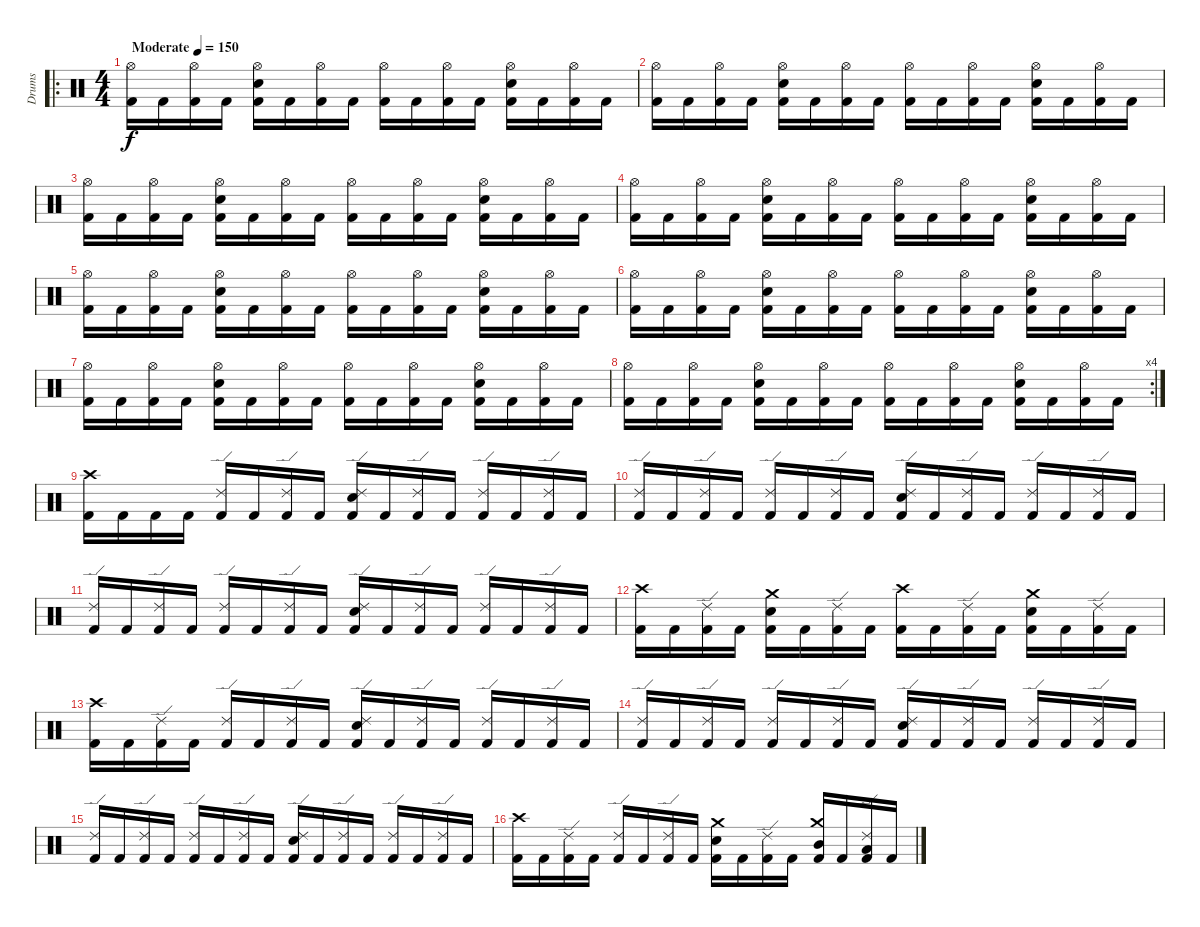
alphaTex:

\track ("Drums" "Drums") {instrument percussion}
\staff {score}
\articulation defaults
\ro
\ts (4 4)
\tempo (150 "Moderate")
\clef neutral
\ks c
("Hi-Hat (open)" "Kick (hit) 2").16{dy f} "Kick (hit) 2".16 ("Hi-Hat (open)" "Kick (hit) 2").16 "Kick (hit) 2".16 ("Hi-Hat (open)" "Electric Snare (hit)" "Kick (hit) 2").16 "Kick (hit) 2".16 ("Hi-Hat (open)" "Kick (hit) 2").16 "Kick (hit) 2".16 ("Hi-Hat (open)" "Kick (hit) 2").16 "Kick (hit) 2".16 ("Hi-Hat (open)" "Kick (hit) 2").16 "Kick (hit) 2".16 ("Hi-Hat (open)" "Electric Snare (hit)" "Kick (hit) 2").16 "Kick (hit) 2".16 ("Hi-Hat (open)" "Kick (hit) 2").16 "Kick (hit) 2".16 |
("Hi-Hat (open)" "Kick (hit) 2").16 "Kick (hit) 2".16 ("Hi-Hat (open)" "Kick (hit) 2").16 "Kick (hit) 2".16 ("Hi-Hat (open)" "Electric Snare (hit)" "Kick (hit) 2").16 "Kick (hit) 2".16 ("Hi-Hat (open)" "Kick (hit) 2").16 "Kick (hit) 2".16 ("Hi-Hat (open)" "Kick (hit) 2").16 "Kick (hit) 2".16 ("Hi-Hat (open)" "Kick (hit) 2").16 "Kick (hit) 2".16 ("Hi-Hat (open)" "Electric Snare (hit)" "Kick (hit) 2").16 "Kick (hit) 2".16 ("Hi-Hat (open)" "Kick (hit) 2").16 "Kick (hit) 2".16 |
("Hi-Hat (open)" "Kick (hit) 2").16 "Kick (hit) 2".16 ("Hi-Hat (open)" "Kick (hit) 2").16 "Kick (hit) 2".16 ("Hi-Hat (open)" "Electric Snare (hit)" "Kick (hit) 2").16 "Kick (hit) 2".16 ("Hi-Hat (open)" "Kick (hit) 2").16 "Kick (hit) 2".16 ("Hi-Hat (open)" "Kick (hit) 2").16 "Kick (hit) 2".16 ("Hi-Hat (open)" "Kick (hit) 2").16 "Kick (hit) 2".16 ("Hi-Hat (open)" "Electric Snare (hit)" "Kick (hit) 2").16 "Kick (hit) 2".16 ("Hi-Hat (open)" "Kick (hit) 2").16 "Kick (hit) 2".16 |
("Hi-Hat (open)" "Kick (hit) 2").16 "Kick (hit) 2".16 ("Hi-Hat (open)" "Kick (hit) 2").16 "Kick (hit) 2".16 ("Hi-Hat (open)" "Electric Snare (hit)" "Kick (hit) 2").16 "Kick (hit) 2".16 ("Hi-Hat (open)" "Kick (hit) 2").16 "Kick (hit) 2".16 ("Hi-Hat (open)" "Kick (hit) 2").16 "Kick (hit) 2".16 ("Hi-Hat (open)" "Kick (hit) 2").16 "Kick (hit) 2".16 ("Hi-Hat (open)" "Electric Snare (hit)" "Kick (hit) 2").16 "Kick (hit) 2".16 ("Hi-Hat (open)" "Kick (hit) 2").16 "Kick (hit) 2".16 |
("Hi-Hat (open)" "Kick (hit) 2").16 "Kick (hit) 2".16 ("Hi-Hat (open)" "Kick (hit) 2").16 "Kick (hit) 2".16 ("Hi-Hat (open)" "Electric Snare (hit)" "Kick (hit) 2").16 "Kick (hit) 2".16 ("Hi-Hat (open)" "Kick (hit) 2").16 "Kick (hit) 2".16 ("Hi-Hat (open)" "Kick (hit) 2").16 "Kick (hit) 2".16 ("Hi-Hat (open)" "Kick (hit) 2").16 "Kick (hit) 2".16 ("Hi-Hat (open)" "Electric Snare (hit)" "Kick (hit) 2").16 "Kick (hit) 2".16 ("Hi-Hat (open)" "Kick (hit) 2").16 "Kick (hit) 2".16 |
("Hi-Hat (open)" "Kick (hit) 2").16 "Kick (hit) 2".16 ("Hi-Hat (open)" "Kick (hit) 2").16 "Kick (hit) 2".16 ("Hi-Hat (open)" "Electric Snare (hit)" "Kick (hit) 2").16 "Kick (hit) 2".16 ("Hi-Hat (open)" "Kick (hit) 2").16 "Kick (hit) 2".16 ("Hi-Hat (open)" "Kick (hit) 2").16 "Kick (hit) 2".16 ("Hi-Hat (open)" "Kick (hit) 2").16 "Kick (hit) 2".16 ("Hi-Hat (open)" "Electric Snare (hit)" "Kick (hit) 2").16 "Kick (hit) 2".16 ("Hi-Hat (open)" "Kick (hit) 2").16 "Kick (hit) 2".16 |
("Hi-Hat (open)" "Kick (hit) 2").16 "Kick (hit) 2".16 ("Hi-Hat (open)" "Kick (hit) 2").16 "Kick (hit) 2".16 ("Hi-Hat (open)" "Electric Snare (hit)" "Kick (hit) 2").16 "Kick (hit) 2".16 ("Hi-Hat (open)" "Kick (hit) 2").16 "Kick (hit) 2".16 ("Hi-Hat (open)" "Kick (hit) 2").16 "Kick (hit) 2".16 ("Hi-Hat (open)" "Kick (hit) 2").16 "Kick (hit) 2".16 ("Hi-Hat (open)" "Electric Snare (hit)" "Kick (hit) 2").16 "Kick (hit) 2".16 ("Hi-Hat (open)" "Kick (hit) 2").16 "Kick (hit) 2".16 |
\rc 4
("Hi-Hat (open)" "Kick (hit) 2").16 "Kick (hit) 2".16 ("Hi-Hat (open)" "Kick (hit) 2").16 "Kick (hit) 2".16 ("Hi-Hat (open)" "Electric Snare (hit)" "Kick (hit) 2").16 "Kick (hit) 2".16 ("Hi-Hat (open)" "Kick (hit) 2").16 "Kick (hit) 2".16 ("Hi-Hat (open)" "Kick (hit) 2").16 "Kick (hit) 2".16 ("Hi-Hat (open)" "Kick (hit) 2").16 "Kick (hit) 2".16 ("Hi-Hat (open)" "Electric Snare (hit)" "Kick (hit) 2").16 "Kick (hit) 2".16 ("Hi-Hat (open)" "Kick (hit) 2").16 "Kick (hit) 2".16 |
("Crash high (hit)" "Kick (hit) 2").16 "Kick (hit) 2".16 "Kick (hit) 2".16 "Kick (hit) 2".16 ("Ride (edge) 2" "Kick (hit) 2").16 "Kick (hit) 2".16 ("Ride (edge) 2" "Kick (hit) 2").16 "Kick (hit) 2".16 ("Ride (edge) 2" "Electric Snare (hit)" "Kick (hit) 2").16 "Kick (hit) 2".16 ("Ride (edge) 2" "Kick (hit) 2").16 "Kick (hit) 2".16 ("Ride (edge) 2" "Kick (hit) 2").16 "Kick (hit) 2".16 ("Ride (edge) 2" "Kick (hit) 2").16 "Kick (hit) 2".16 |
("Ride (edge) 2" "Kick (hit) 2").16 "Kick (hit) 2".16 ("Ride (edge) 2" "Kick (hit) 2").16 "Kick (hit) 2".16 ("Ride (edge) 2" "Kick (hit) 2").16 "Kick (hit) 2".16 ("Ride (edge) 2" "Kick (hit) 2").16 "Kick (hit) 2".16 ("Ride (edge) 2" "Electric Snare (hit)" "Kick (hit) 2").16 "Kick (hit) 2".16 ("Ride (edge) 2" "Kick (hit) 2").16 "Kick (hit) 2".16 ("Ride (edge) 2" "Kick (hit) 2").16 "Kick (hit) 2".16 ("Ride (edge) 2" "Kick (hit) 2").16 "Kick (hit) 2".16 |
("Ride (edge) 2" "Kick (hit) 2").16 "Kick (hit) 2".16 ("Ride (edge) 2" "Kick (hit) 2").16 "Kick (hit) 2".16 ("Ride (edge) 2" "Kick (hit) 2").16 "Kick (hit) 2".16 ("Ride (edge) 2" "Kick (hit) 2").16 "Kick (hit) 2".16 ("Ride (edge) 2" "Electric Snare (hit)" "Kick (hit) 2").16 "Kick (hit) 2".16 ("Ride (edge) 2" "Kick (hit) 2").16 "Kick (hit) 2".16 ("Ride (edge) 2" "Kick (hit) 2").16 "Kick (hit) 2".16 ("Ride (edge) 2" "Kick (hit) 2").16 "Kick (hit) 2".16 |
("Crash high (hit)" "Kick (hit) 2").16 "Kick (hit) 2".16 ("Ride (edge) 2" "Kick (hit) 2").16 "Kick (hit) 2".16 ("Crash medium (hit)" "Electric Snare (hit)" "Kick (hit) 2").16 "Kick (hit) 2".16 ("Ride (edge) 2" "Kick (hit) 2").16 "Kick (hit) 2".16 ("Crash high (hit)" "Kick (hit) 2").16 "Kick (hit) 2".16 ("Ride (edge) 2" "Kick (hit) 2").16 "Kick (hit) 2".16 ("Crash medium (hit)" "Electric Snare (hit)" "Kick (hit) 2").16 "Kick (hit) 2".16 ("Ride (edge) 2" "Kick (hit) 2").16 "Kick (hit) 2".16 |
("Crash high (hit)" "Kick (hit) 2").16 "Kick (hit) 2".16 ("Ride (edge) 2" "Kick (hit) 2").16 "Kick (hit) 2".16 ("Ride (edge) 2" "Kick (hit) 2").16 "Kick (hit) 2".16 ("Ride (edge) 2" "Kick (hit) 2").16 "Kick (hit) 2".16 ("Ride (edge) 2" "Electric Snare (hit)" "Kick (hit) 2").16 "Kick (hit) 2".16 ("Ride (edge) 2" "Kick (hit) 2").16 "Kick (hit) 2".16 ("Ride (edge) 2" "Kick (hit) 2").16 "Kick (hit) 2".16 ("Ride (edge) 2" "Kick (hit) 2").16 "Kick (hit) 2".16 |
("Ride (edge) 2" "Kick (hit) 2").16 "Kick (hit) 2".16 ("Ride (edge) 2" "Kick (hit) 2").16 "Kick (hit) 2".16 ("Ride (edge) 2" "Kick (hit) 2").16 "Kick (hit) 2".16 ("Ride (edge) 2" "Kick (hit) 2").16 "Kick (hit) 2".16 ("Ride (edge) 2" "Electric Snare (hit)" "Kick (hit) 2").16 "Kick (hit) 2".16 ("Ride (edge) 2" "Kick (hit) 2").16 "Kick (hit) 2".16 ("Ride (edge) 2" "Kick (hit) 2").16 "Kick (hit) 2".16 ("Ride (edge) 2" "Kick (hit) 2").16 "Kick (hit) 2".16 |
("Ride (edge) 2" "Kick (hit) 2").16 "Kick (hit) 2".16 ("Ride (edge) 2" "Kick (hit) 2").16 "Kick (hit) 2".16 ("Ride (edge) 2" "Kick (hit) 2").16 "Kick (hit) 2".16 ("Ride (edge) 2" "Kick (hit) 2").16 "Kick (hit) 2".16 ("Ride (edge) 2" "Electric Snare (hit)" "Kick (hit) 2").16 "Kick (hit) 2".16 ("Ride (edge) 2" "Kick (hit) 2").16 "Kick (hit) 2".16 ("Ride (edge) 2" "Kick (hit) 2").16 "Kick (hit) 2".16 ("Ride (edge) 2" "Kick (hit) 2").16 "Kick (hit) 2".16 |
("Crash high (hit)" "Kick (hit) 2").16 "Kick (hit) 2".16 ("Ride (edge) 2" "Kick (hit) 2").16 "Kick (hit) 2".16 ("Ride (edge) 2" "Kick (hit) 2").16 "Kick (hit) 2".16 ("Ride (edge) 2" "Kick (hit) 2").16 "Kick (hit) 2".16 ("Crash medium (hit)" "Electric Snare (hit)" "Kick (hit) 2").16 "Kick (hit) 2".16 ("Ride (edge) 2" "Kick (hit) 2").16 "Kick (hit) 2".16 ("Crash medium (hit)" "Mid Tom (hit)" "Kick (hit) 2").16 "Kick (hit) 2".16 ("Ride (edge) 2" "Low Tom (hit)" "Kick (hit) 2").16 "Kick (hit) 2".16
